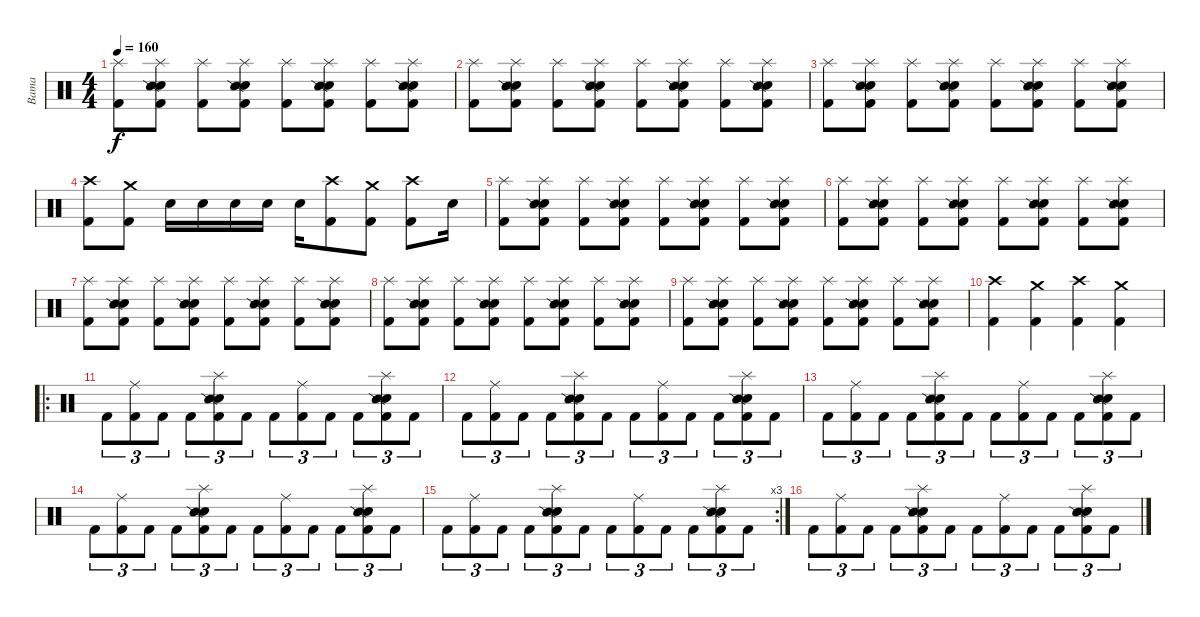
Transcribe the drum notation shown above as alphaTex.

\track ("Bama" "Bama") {instrument percussion}
\staff {score}
\articulation defaults
\ts (4 4)
\tempo 160
\clef neutral
\ks c
("Splash (hit)" "Kick (hit) 2").8{dy f} ("Splash (hit)" "Electric Snare (hit)" "Snare (side stick) 2" "Kick (hit) 2").8 ("Splash (hit)" "Kick (hit) 2").8 ("Splash (hit)" "Electric Snare (hit)" "Snare (side stick) 2" "Kick (hit) 2").8 ("Splash (hit)" "Kick (hit) 2").8 ("Splash (hit)" "Electric Snare (hit)" "Snare (side stick) 2" "Kick (hit) 2").8 ("Splash (hit)" "Kick (hit) 2").8 ("Splash (hit)" "Electric Snare (hit)" "Snare (side stick) 2" "Kick (hit) 2").8 |
("Splash (hit)" "Kick (hit) 2").8 ("Splash (hit)" "Electric Snare (hit)" "Snare (side stick) 2" "Kick (hit) 2").8 ("Splash (hit)" "Kick (hit) 2").8 ("Splash (hit)" "Electric Snare (hit)" "Snare (side stick) 2" "Kick (hit) 2").8 ("Splash (hit)" "Kick (hit) 2").8 ("Splash (hit)" "Electric Snare (hit)" "Snare (side stick) 2" "Kick (hit) 2").8 ("Splash (hit)" "Kick (hit) 2").8 ("Splash (hit)" "Electric Snare (hit)" "Snare (side stick) 2" "Kick (hit) 2").8 |
("Splash (hit)" "Kick (hit) 2").8 ("Splash (hit)" "Electric Snare (hit)" "Snare (side stick) 2" "Kick (hit) 2").8 ("Splash (hit)" "Kick (hit) 2").8 ("Splash (hit)" "Electric Snare (hit)" "Snare (side stick) 2" "Kick (hit) 2").8 ("Splash (hit)" "Kick (hit) 2").8 ("Splash (hit)" "Electric Snare (hit)" "Snare (side stick) 2" "Kick (hit) 2").8 ("Splash (hit)" "Kick (hit) 2").8 ("Splash (hit)" "Electric Snare (hit)" "Snare (side stick) 2" "Kick (hit) 2").8 |
("Crash high (hit)" "Kick (hit) 2").8 ("Crash medium (hit)" "Kick (hit) 2").8 "Electric Snare (hit)".16 "Electric Snare (hit)".16 "Electric Snare (hit)".16 "Electric Snare (hit)".16 "Electric Snare (hit)".16 ("Crash high (hit)" "Kick (hit) 2").8 ("Crash medium (hit)" "Kick (hit) 2").8 ("Crash high (hit)" "Kick (hit) 2").8 "Electric Snare (hit)".16 |
("Splash (hit)" "Kick (hit) 2").8 ("Splash (hit)" "Electric Snare (hit)" "Snare (side stick) 2" "Kick (hit) 2").8 ("Splash (hit)" "Kick (hit) 2").8 ("Splash (hit)" "Electric Snare (hit)" "Snare (side stick) 2" "Kick (hit) 2").8 ("Splash (hit)" "Kick (hit) 2").8 ("Splash (hit)" "Electric Snare (hit)" "Snare (side stick) 2" "Kick (hit) 2").8 ("Splash (hit)" "Kick (hit) 2").8 ("Splash (hit)" "Electric Snare (hit)" "Snare (side stick) 2" "Kick (hit) 2").8 |
("Splash (hit)" "Kick (hit) 2").8 ("Splash (hit)" "Electric Snare (hit)" "Snare (side stick) 2" "Kick (hit) 2").8 ("Splash (hit)" "Kick (hit) 2").8 ("Splash (hit)" "Electric Snare (hit)" "Snare (side stick) 2" "Kick (hit) 2").8 ("Splash (hit)" "Kick (hit) 2").8 ("Splash (hit)" "Electric Snare (hit)" "Snare (side stick) 2" "Kick (hit) 2").8 ("Splash (hit)" "Kick (hit) 2").8 ("Splash (hit)" "Electric Snare (hit)" "Snare (side stick) 2" "Kick (hit) 2").8 |
("Splash (hit)" "Kick (hit) 2").8 ("Splash (hit)" "Electric Snare (hit)" "Snare (side stick) 2" "Kick (hit) 2").8 ("Splash (hit)" "Kick (hit) 2").8 ("Splash (hit)" "Electric Snare (hit)" "Snare (side stick) 2" "Kick (hit) 2").8 ("Splash (hit)" "Kick (hit) 2").8 ("Splash (hit)" "Electric Snare (hit)" "Snare (side stick) 2" "Kick (hit) 2").8 ("Splash (hit)" "Kick (hit) 2").8 ("Splash (hit)" "Electric Snare (hit)" "Snare (side stick) 2" "Kick (hit) 2").8 |
("Splash (hit)" "Kick (hit) 2").8 ("Splash (hit)" "Electric Snare (hit)" "Snare (side stick) 2" "Kick (hit) 2").8 ("Splash (hit)" "Kick (hit) 2").8 ("Splash (hit)" "Electric Snare (hit)" "Snare (side stick) 2" "Kick (hit) 2").8 ("Splash (hit)" "Kick (hit) 2").8 ("Splash (hit)" "Electric Snare (hit)" "Snare (side stick) 2" "Kick (hit) 2").8 ("Splash (hit)" "Kick (hit) 2").8 ("Splash (hit)" "Electric Snare (hit)" "Snare (side stick) 2" "Kick (hit) 2").8 |
("Splash (hit)" "Kick (hit) 2").8 ("Splash (hit)" "Electric Snare (hit)" "Snare (side stick) 2" "Kick (hit) 2").8 ("Splash (hit)" "Kick (hit) 2").8 ("Splash (hit)" "Electric Snare (hit)" "Snare (side stick) 2" "Kick (hit) 2").8 ("Splash (hit)" "Kick (hit) 2").8 ("Splash (hit)" "Electric Snare (hit)" "Snare (side stick) 2" "Kick (hit) 2").8 ("Splash (hit)" "Kick (hit) 2").8 ("Splash (hit)" "Electric Snare (hit)" "Snare (side stick) 2" "Kick (hit) 2").8 |
("Crash high (hit)" "Kick (hit) 2").4 ("Crash medium (hit)" "Kick (hit) 2").4 ("Crash high (hit)" "Kick (hit) 2").4 ("Crash medium (hit)" "Kick (hit) 2").4 |
\ro "Kick (hit) 2".8{tu (3 2)}
("Ride (middle)" "Kick (hit) 2").8{tu (3 2)} "Kick (hit) 2".8{tu (3 2)} "Kick (hit) 2".8{tu (3 2)} ("Splash (hit)" "Electric Snare (hit)" "Snare (side stick) 2" "Kick (hit) 2").8{tu (3 2)} "Kick (hit) 2".8{tu (3 2)} "Kick (hit) 2".8{tu (3 2)} ("Ride (middle)" "Kick (hit) 2").8{tu (3 2)} "Kick (hit) 2".8{tu (3 2)} "Kick (hit) 2".8{tu (3 2)} ("Splash (hit)" "Electric Snare (hit)" "Snare (side stick) 2" "Kick (hit) 2").8{tu (3 2)} "Kick (hit) 2".8{tu (3 2)} |
"Kick (hit) 2".8{tu (3 2)} ("Ride (middle)" "Kick (hit) 2").8{tu (3 2)} "Kick (hit) 2".8{tu (3 2)} "Kick (hit) 2".8{tu (3 2)} ("Splash (hit)" "Electric Snare (hit)" "Snare (side stick) 2" "Kick (hit) 2").8{tu (3 2)} "Kick (hit) 2".8{tu (3 2)} "Kick (hit) 2".8{tu (3 2)} ("Ride (middle)" "Kick (hit) 2").8{tu (3 2)} "Kick (hit) 2".8{tu (3 2)} "Kick (hit) 2".8{tu (3 2)} ("Splash (hit)" "Electric Snare (hit)" "Snare (side stick) 2" "Kick (hit) 2").8{tu (3 2)} "Kick (hit) 2".8{tu (3 2)} |
"Kick (hit) 2".8{tu (3 2)} ("Ride (middle)" "Kick (hit) 2").8{tu (3 2)} "Kick (hit) 2".8{tu (3 2)} "Kick (hit) 2".8{tu (3 2)} ("Splash (hit)" "Electric Snare (hit)" "Snare (side stick) 2" "Kick (hit) 2").8{tu (3 2)} "Kick (hit) 2".8{tu (3 2)} "Kick (hit) 2".8{tu (3 2)} ("Ride (middle)" "Kick (hit) 2").8{tu (3 2)} "Kick (hit) 2".8{tu (3 2)} "Kick (hit) 2".8{tu (3 2)} ("Splash (hit)" "Electric Snare (hit)" "Snare (side stick) 2" "Kick (hit) 2").8{tu (3 2)} "Kick (hit) 2".8{tu (3 2)} |
"Kick (hit) 2".8{tu (3 2)} ("Ride (middle)" "Kick (hit) 2").8{tu (3 2)} "Kick (hit) 2".8{tu (3 2)} "Kick (hit) 2".8{tu (3 2)} ("Splash (hit)" "Electric Snare (hit)" "Snare (side stick) 2" "Kick (hit) 2").8{tu (3 2)} "Kick (hit) 2".8{tu (3 2)} "Kick (hit) 2".8{tu (3 2)} ("Ride (middle)" "Kick (hit) 2").8{tu (3 2)} "Kick (hit) 2".8{tu (3 2)} "Kick (hit) 2".8{tu (3 2)} ("Splash (hit)" "Electric Snare (hit)" "Snare (side stick) 2" "Kick (hit) 2").8{tu (3 2)} "Kick (hit) 2".8{tu (3 2)} |
\rc 3 "Kick (hit) 2".8{tu (3 2)}
("Ride (middle)" "Kick (hit) 2").8{tu (3 2)} "Kick (hit) 2".8{tu (3 2)} "Kick (hit) 2".8{tu (3 2)} ("Splash (hit)" "Electric Snare (hit)" "Snare (side stick) 2" "Kick (hit) 2").8{tu (3 2)} "Kick (hit) 2".8{tu (3 2)} "Kick (hit) 2".8{tu (3 2)} ("Ride (middle)" "Kick (hit) 2").8{tu (3 2)} "Kick (hit) 2".8{tu (3 2)} "Kick (hit) 2".8{tu (3 2)} ("Splash (hit)" "Electric Snare (hit)" "Snare (side stick) 2" "Kick (hit) 2").8{tu (3 2)} "Kick (hit) 2".8{tu (3 2)} |
"Kick (hit) 2".8{tu (3 2)} ("Ride (middle)" "Kick (hit) 2").8{tu (3 2)} "Kick (hit) 2".8{tu (3 2)} "Kick (hit) 2".8{tu (3 2)} ("Splash (hit)" "Electric Snare (hit)" "Snare (side stick) 2" "Kick (hit) 2").8{tu (3 2)} "Kick (hit) 2".8{tu (3 2)} "Kick (hit) 2".8{tu (3 2)} ("Ride (middle)" "Kick (hit) 2").8{tu (3 2)} "Kick (hit) 2".8{tu (3 2)} "Kick (hit) 2".8{tu (3 2)} ("Splash (hit)" "Electric Snare (hit)" "Snare (side stick) 2" "Kick (hit) 2").8{tu (3 2)} "Kick (hit) 2".8{tu (3 2)}
